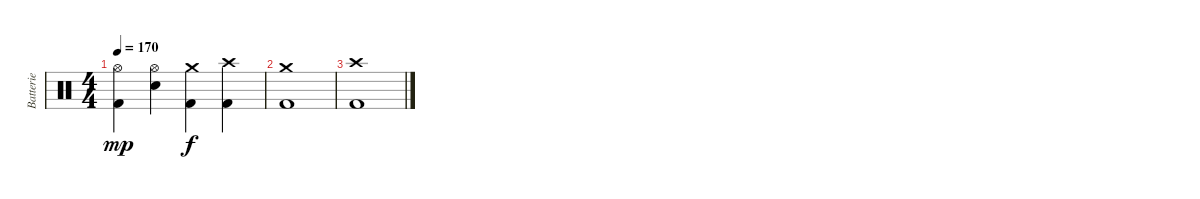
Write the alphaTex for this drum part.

\track ("Batterie" "Batterie") {instrument percussion}
\staff {score}
\articulation defaults
\ts (4 4)
\tempo 170
\clef neutral
\ks c
("Hi-Hat (open)" "Kick (hit) 2").4{dy mp} ("Hi-Hat (open)" "Electric Snare (hit)").4 ("Crash medium (hit)" "Kick (hit) 2").4{dy f} ("Crash high (hit)" "Kick (hit) 2").4 |
("Crash medium (hit)" "Kick (hit) 2").1 |
("Crash high (hit)" "Kick (hit) 2").1
